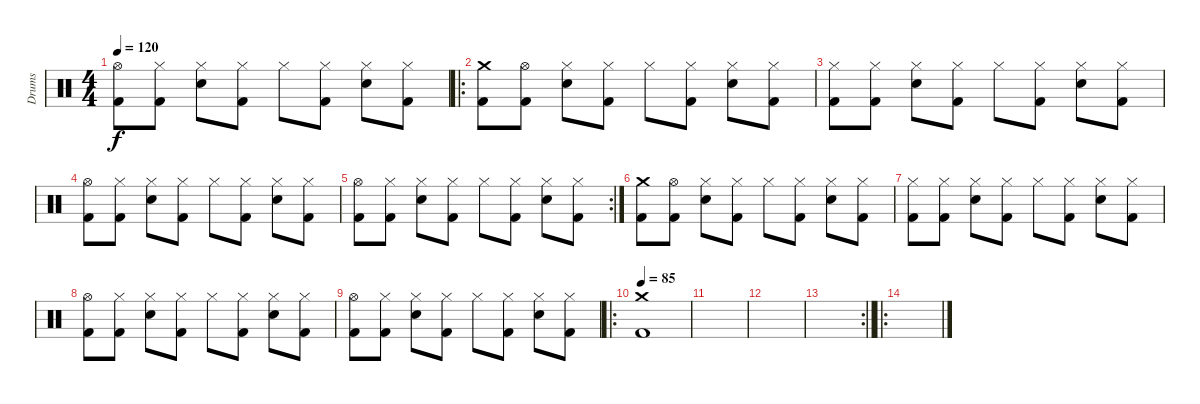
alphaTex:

\track ("Drums" "Drums") {instrument percussion}
\staff {score}
\articulation defaults
\ts (4 4)
\tempo 120
\clef neutral
\ks c
("Kick (hit) 2" "Hi-Hat (open)").8{dy f} ("Kick (hit) 2" "Hi-Hat (closed)").8 ("Snare (hit) 2" "Hi-Hat (closed)").8 ("Kick (hit) 2" "Hi-Hat (closed)").8 "Hi-Hat (closed)".8 ("Kick (hit) 2" "Hi-Hat (closed)").8 ("Snare (hit) 2" "Hi-Hat (closed)").8 ("Kick (hit) 2" "Hi-Hat (closed)").8 |
\ro
("Kick (hit) 2" "Crash medium (hit)").8 ("Kick (hit) 2" "Hi-Hat (open)").8 ("Snare (hit) 2" "Hi-Hat (closed)").8 ("Kick (hit) 2" "Hi-Hat (closed)").8 "Hi-Hat (closed)".8 ("Kick (hit) 2" "Hi-Hat (closed)").8 ("Snare (hit) 2" "Hi-Hat (closed)").8 ("Kick (hit) 2" "Hi-Hat (closed)").8 |
("Kick (hit) 2" "Hi-Hat (closed)").8 ("Kick (hit) 2" "Hi-Hat (closed)").8 ("Snare (hit) 2" "Hi-Hat (closed)").8 ("Kick (hit) 2" "Hi-Hat (closed)").8 "Hi-Hat (closed)".8 ("Kick (hit) 2" "Hi-Hat (closed)").8 ("Snare (hit) 2" "Hi-Hat (closed)").8 ("Kick (hit) 2" "Hi-Hat (closed)").8 |
("Kick (hit) 2" "Hi-Hat (open)").8 ("Kick (hit) 2" "Hi-Hat (closed)").8 ("Snare (hit) 2" "Hi-Hat (closed)").8 ("Kick (hit) 2" "Hi-Hat (closed)").8 "Hi-Hat (closed)".8 ("Kick (hit) 2" "Hi-Hat (closed)").8 ("Snare (hit) 2" "Hi-Hat (closed)").8 ("Kick (hit) 2" "Hi-Hat (closed)").8 |
\rc 2
("Kick (hit) 2" "Hi-Hat (open)").8 ("Kick (hit) 2" "Hi-Hat (closed)").8 ("Snare (hit) 2" "Hi-Hat (closed)").8 ("Kick (hit) 2" "Hi-Hat (closed)").8 "Hi-Hat (closed)".8 ("Kick (hit) 2" "Hi-Hat (closed)").8 ("Snare (hit) 2" "Hi-Hat (closed)").8 ("Kick (hit) 2" "Hi-Hat (closed)").8 |
("Kick (hit) 2" "Crash medium (hit)").8 ("Kick (hit) 2" "Hi-Hat (open)").8 ("Snare (hit) 2" "Hi-Hat (closed)").8 ("Kick (hit) 2" "Hi-Hat (closed)").8 "Hi-Hat (closed)".8 ("Kick (hit) 2" "Hi-Hat (closed)").8 ("Snare (hit) 2" "Hi-Hat (closed)").8 ("Kick (hit) 2" "Hi-Hat (closed)").8 |
("Kick (hit) 2" "Hi-Hat (closed)").8 ("Kick (hit) 2" "Hi-Hat (closed)").8 ("Snare (hit) 2" "Hi-Hat (closed)").8 ("Kick (hit) 2" "Hi-Hat (closed)").8 "Hi-Hat (closed)".8 ("Kick (hit) 2" "Hi-Hat (closed)").8 ("Snare (hit) 2" "Hi-Hat (closed)").8 ("Kick (hit) 2" "Hi-Hat (closed)").8 |
("Kick (hit) 2" "Hi-Hat (open)").8 ("Kick (hit) 2" "Hi-Hat (closed)").8 ("Snare (hit) 2" "Hi-Hat (closed)").8 ("Kick (hit) 2" "Hi-Hat (closed)").8 "Hi-Hat (closed)".8 ("Kick (hit) 2" "Hi-Hat (closed)").8 ("Snare (hit) 2" "Hi-Hat (closed)").8 ("Kick (hit) 2" "Hi-Hat (closed)").8 |
("Kick (hit) 2" "Hi-Hat (open)").8 ("Kick (hit) 2" "Hi-Hat (closed)").8 ("Snare (hit) 2" "Hi-Hat (closed)").8 ("Kick (hit) 2" "Hi-Hat (closed)").8 "Hi-Hat (closed)".8 ("Kick (hit) 2" "Hi-Hat (closed)").8 ("Snare (hit) 2" "Hi-Hat (closed)").8 ("Kick (hit) 2" "Hi-Hat (closed)").8 |
\ro
\tempo 85
("Kick (hit) 2" "Crash medium (hit)").1 |
|
|
\rc 2
\barLineRight lightlight
|
\ro
